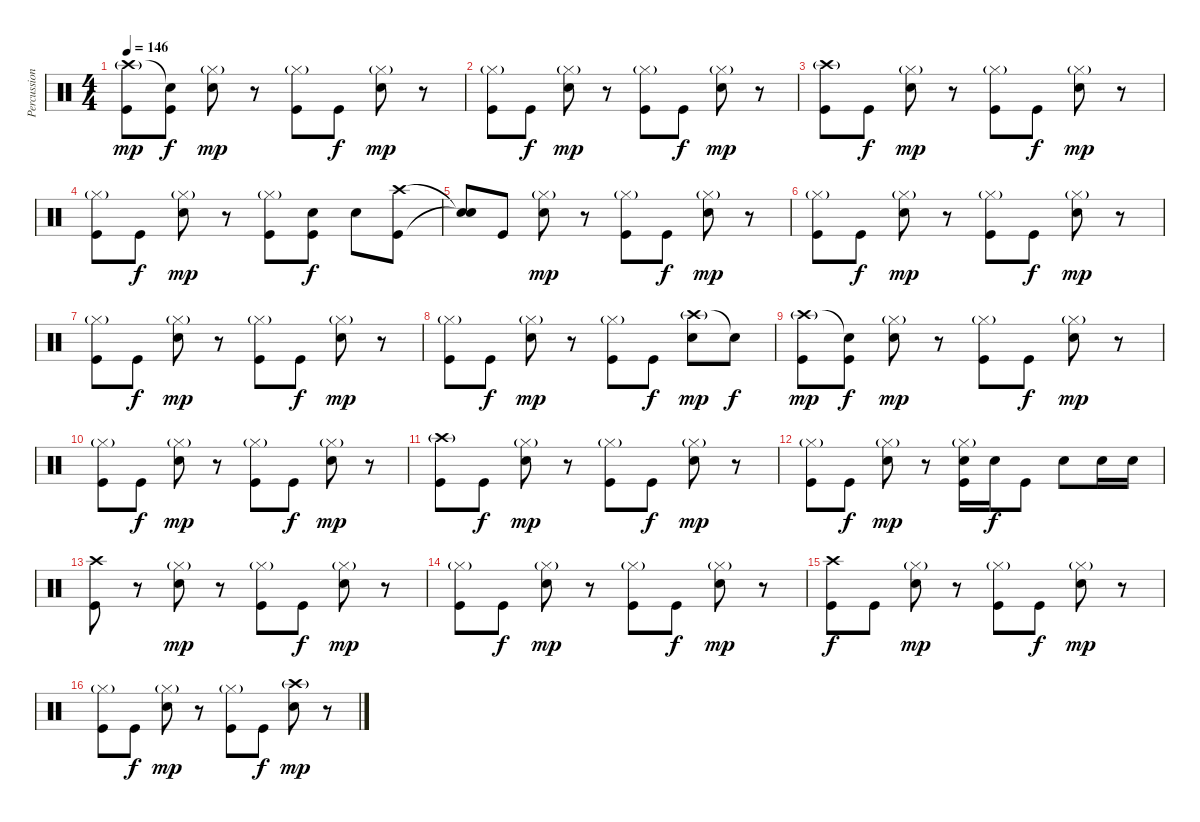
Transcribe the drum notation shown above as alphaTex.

\track ("Percussion" "Percussion") {instrument percussion}
\staff {score}
\articulation defaults
\ts (4 4)
\tempo 146
\clef neutral
\ks c
("Crash high (hit)"{g} "Kick (hit)").8{dy mp} ("Snare (hit)"{t} "Kick (hit)").8{dy f} ("Hi-Hat (closed)"{g} "Snare (hit) 2").8{dy mp} r.8 ("Hi-Hat (closed)"{g} "Kick (hit)").8 "Kick (hit)".8{dy f} ("Hi-Hat (closed)"{g} "Snare (hit) 2").8{dy mp} r.8 |
("Hi-Hat (closed)"{g} "Kick (hit)").8 "Kick (hit)".8{dy f} ("Hi-Hat (closed)"{g} "Snare (hit) 2").8{dy mp} r.8 ("Hi-Hat (closed)"{g} "Kick (hit)").8 "Kick (hit)".8{dy f} ("Hi-Hat (closed)"{g} "Snare (hit) 2").8{dy mp} r.8 |
("Crash high (hit)"{g} "Kick (hit)").8 "Kick (hit)".8{dy f} ("Hi-Hat (closed)"{g} "Snare (hit) 2").8{dy mp} r.8 ("Hi-Hat (closed)"{g} "Kick (hit)").8 "Kick (hit)".8{dy f} ("Hi-Hat (closed)"{g} "Snare (hit) 2").8{dy mp} r.8 |
("Hi-Hat (closed)"{g} "Kick (hit)").8 "Kick (hit)".8{dy f} ("Hi-Hat (closed)"{g} "Snare (hit) 2").8{dy mp} r.8 ("Hi-Hat (closed)"{g} "Kick (hit)").8 ("Snare (hit) 2" "Kick (hit)").8{dy f} "Snare (hit) 2".8 ("Crash high (hit)" "Kick (hit)").8 |
("Snare (hit)"{t} "Snare (hit)"{t}).8 "Kick (hit)".8 ("Hi-Hat (closed)"{g} "Snare (hit) 2").8{dy mp} r.8 ("Hi-Hat (closed)"{g} "Kick (hit)").8 "Kick (hit)".8{dy f} ("Hi-Hat (closed)"{g} "Snare (hit) 2").8{dy mp} r.8 |
("Hi-Hat (closed)"{g} "Kick (hit)").8 "Kick (hit)".8{dy f} ("Hi-Hat (closed)"{g} "Snare (hit) 2").8{dy mp} r.8 ("Hi-Hat (closed)"{g} "Kick (hit)").8 "Kick (hit)".8{dy f} ("Hi-Hat (closed)"{g} "Snare (hit) 2").8{dy mp} r.8 |
("Hi-Hat (closed)"{g} "Kick (hit)").8 "Kick (hit)".8{dy f} ("Hi-Hat (closed)"{g} "Snare (hit) 2").8{dy mp} r.8 ("Hi-Hat (closed)"{g} "Kick (hit)").8 "Kick (hit)".8{dy f} ("Hi-Hat (closed)"{g} "Snare (hit) 2").8{dy mp} r.8 |
("Hi-Hat (closed)"{g} "Kick (hit)").8 "Kick (hit)".8{dy f} ("Hi-Hat (closed)"{g} "Snare (hit) 2").8{dy mp} r.8 ("Hi-Hat (closed)"{g} "Kick (hit)").8 "Kick (hit)".8{dy f} ("Crash high (hit)"{g} "Snare (hit) 2").8{dy mp} "Snare (hit)"{t}.8{dy f} |
("Crash high (hit)"{g} "Kick (hit)").8{dy mp} ("Snare (hit)"{t} "Kick (hit)").8{dy f} ("Hi-Hat (closed)"{g} "Snare (hit) 2").8{dy mp} r.8 ("Hi-Hat (closed)"{g} "Kick (hit)").8 "Kick (hit)".8{dy f} ("Hi-Hat (closed)"{g} "Snare (hit) 2").8{dy mp} r.8 |
("Hi-Hat (closed)"{g} "Kick (hit)").8 "Kick (hit)".8{dy f} ("Hi-Hat (closed)"{g} "Snare (hit) 2").8{dy mp} r.8 ("Hi-Hat (closed)"{g} "Kick (hit)").8 "Kick (hit)".8{dy f} ("Hi-Hat (closed)"{g} "Snare (hit) 2").8{dy mp} r.8 |
("Crash high (hit)"{g} "Kick (hit)").8 "Kick (hit)".8{dy f} ("Hi-Hat (closed)"{g} "Snare (hit) 2").8{dy mp} r.8 ("Hi-Hat (closed)"{g} "Kick (hit)").8 "Kick (hit)".8{dy f} ("Hi-Hat (closed)"{g} "Snare (hit) 2").8{dy mp} r.8 |
("Hi-Hat (closed)"{g} "Kick (hit)").8 "Kick (hit)".8{dy f} ("Hi-Hat (closed)"{g} "Snare (hit) 2").8{dy mp} r.8 ("Hi-Hat (closed)"{g} "Snare (hit) 2" "Kick (hit)").16 "Snare (hit) 2".16{dy f} "Kick (hit)".8 "Snare (hit) 2".8 "Snare (hit) 2".16 "Snare (hit) 2".16 |
("Crash high (hit)" "Kick (hit)").8 r.8 ("Hi-Hat (closed)"{g} "Snare (hit) 2").8{dy mp} r.8 ("Hi-Hat (closed)"{g} "Kick (hit)").8 "Kick (hit)".8{dy f} ("Hi-Hat (closed)"{g} "Snare (hit) 2").8{dy mp} r.8 |
("Hi-Hat (closed)"{g} "Kick (hit)").8 "Kick (hit)".8{dy f} ("Hi-Hat (closed)"{g} "Snare (hit) 2").8{dy mp} r.8 ("Hi-Hat (closed)"{g} "Kick (hit)").8 "Kick (hit)".8{dy f} ("Hi-Hat (closed)"{g} "Snare (hit) 2").8{dy mp} r.8 |
("Crash high (hit)" "Kick (hit)").8{dy f} "Kick (hit)".8 ("Hi-Hat (closed)"{g} "Snare (hit) 2").8{dy mp} r.8 ("Hi-Hat (closed)"{g} "Kick (hit)").8 "Kick (hit)".8{dy f} ("Hi-Hat (closed)"{g} "Snare (hit) 2").8{dy mp} r.8 |
("Hi-Hat (closed)"{g} "Kick (hit)").8 "Kick (hit)".8{dy f} ("Hi-Hat (closed)"{g} "Snare (hit) 2").8{dy mp} r.8 ("Hi-Hat (closed)"{g} "Kick (hit)").8 "Kick (hit)".8{dy f} ("Crash high (hit)"{g} "Snare (hit) 2").8{dy mp} r.8
